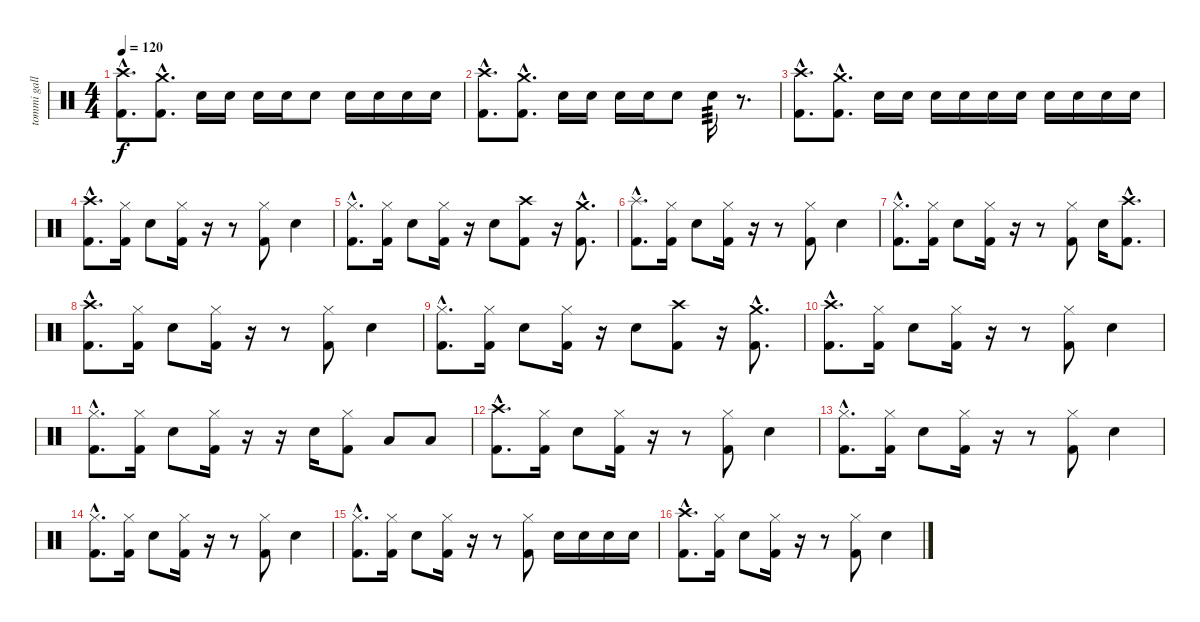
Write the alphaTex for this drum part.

\track ("tommi gallo" "tommi gall") {instrument percussion}
\staff {score}
\articulation defaults
\ts (4 4)
\tempo 120
\clef neutral
\ks c
("Crash high (hit)"{hac} "Kick (hit) 2"{hac}).8{d dy f} ("Crash medium (hit)"{hac} "Kick (hit) 2"{hac}).8{d} "Snare (hit) 2".16 "Snare (hit) 2".16 "Snare (hit) 2".16 "Snare (hit) 2".16 "Snare (hit) 2".8 "Snare (hit) 2".16 "Snare (hit) 2".16 "Snare (hit) 2".16 "Snare (hit) 2".16 |
("Crash high (hit)"{hac} "Kick (hit) 2"{hac}).8{d} ("Crash medium (hit)"{hac} "Kick (hit) 2"{hac}).8{d} "Snare (hit) 2".16 "Snare (hit) 2".16 "Snare (hit) 2".16 "Snare (hit) 2".16 "Snare (hit) 2".8 "Snare (hit) 2".16{tp 3} r.8{d} |
("Crash high (hit)"{hac} "Kick (hit) 2"{hac}).8{d} ("Crash medium (hit)"{hac} "Kick (hit) 2"{hac}).8{d} "Snare (hit) 2".16 "Snare (hit) 2".16 "Snare (hit) 2".16 "Snare (hit) 2".16 "Snare (hit) 2".16 "Snare (hit) 2".16 "Snare (hit) 2".16 "Snare (hit) 2".16 "Snare (hit) 2".16 "Snare (hit) 2".16 |
("Crash high (hit)"{hac} "Kick (hit) 2"{hac}).8{d} ("Hi-Hat (closed)" "Kick (hit) 2").16 "Snare (hit) 2".8 ("Hi-Hat (closed)" "Kick (hit) 2").16 r.16 r.8 ("Hi-Hat (closed)" "Kick (hit) 2").8 "Snare (hit) 2".4 |
("Hi-Hat (closed)"{hac} "Kick (hit) 2"{hac}).8{d} ("Hi-Hat (closed)" "Kick (hit) 2").16 "Snare (hit) 2".8 ("Hi-Hat (closed)" "Kick (hit) 2").16 r.16 "Snare (hit) 2".8 ("Crash high (hit)" "Kick (hit) 2").8 r.16 ("Crash medium (hit)"{hac} "Kick (hit) 2"{hac}).8{d} |
("Splash (hit)"{hac} "Kick (hit) 2"{hac}).8{d} ("Hi-Hat (closed)" "Kick (hit) 2").16 "Snare (hit) 2".8 ("Hi-Hat (closed)" "Kick (hit) 2").16 r.16 r.8 ("Hi-Hat (closed)" "Kick (hit) 2").8 "Snare (hit) 2".4 |
("Hi-Hat (closed)"{hac} "Kick (hit) 2"{hac}).8{d} ("Hi-Hat (closed)" "Kick (hit) 2").16 "Snare (hit) 2".8 ("Hi-Hat (closed)" "Kick (hit) 2").16 r.16 r.8 ("Hi-Hat (closed)" "Kick (hit) 2").8 "Snare (hit) 2".16 ("Crash high (hit)"{hac} "Kick (hit) 2"{hac}).8{d} |
("Crash high (hit)"{hac} "Kick (hit) 2"{hac}).8{d} ("Hi-Hat (closed)" "Kick (hit) 2").16 "Snare (hit) 2".8 ("Hi-Hat (closed)" "Kick (hit) 2").16 r.16 r.8 ("Hi-Hat (closed)" "Kick (hit) 2").8 "Snare (hit) 2".4 |
("Hi-Hat (closed)"{hac} "Kick (hit) 2"{hac}).8{d} ("Hi-Hat (closed)" "Kick (hit) 2").16 "Snare (hit) 2".8 ("Hi-Hat (closed)" "Kick (hit) 2").16 r.16 "Snare (hit) 2".8 ("Crash high (hit)" "Kick (hit) 2").8 r.16 ("Crash medium (hit)"{hac} "Kick (hit) 2"{hac}).8{d} |
("Crash high (hit)"{hac} "Kick (hit) 2"{hac}).8{d} ("Hi-Hat (closed)" "Kick (hit) 2").16 "Snare (hit) 2".8 ("Hi-Hat (closed)" "Kick (hit) 2").16 r.16 r.8 ("Hi-Hat (closed)" "Kick (hit) 2").8 "Snare (hit) 2".4 |
("Hi-Hat (closed)"{hac} "Kick (hit) 2"{hac}).8{d} ("Hi-Hat (closed)" "Kick (hit) 2").16 "Snare (hit) 2".8 ("Hi-Hat (closed)" "Kick (hit) 2").16 r.16 r.16 "Snare (hit) 2".16 ("Hi-Hat (closed)" "Kick (hit) 2").8 "Low Tom (hit)".8 "Low Tom (hit)".8 |
("Crash high (hit)"{hac} "Kick (hit) 2"{hac}).8{d} ("Hi-Hat (closed)" "Kick (hit) 2").16 "Snare (hit) 2".8 ("Hi-Hat (closed)" "Kick (hit) 2").16 r.16 r.8 ("Hi-Hat (closed)" "Kick (hit) 2").8 "Snare (hit) 2".4 |
("Hi-Hat (closed)"{hac} "Kick (hit) 2"{hac}).8{d} ("Hi-Hat (closed)" "Kick (hit) 2").16 "Snare (hit) 2".8 ("Hi-Hat (closed)" "Kick (hit) 2").16 r.16 r.8 ("Hi-Hat (closed)" "Kick (hit) 2").8 "Snare (hit) 2".4 |
("Hi-Hat (closed)"{hac} "Kick (hit) 2"{hac}).8{d} ("Hi-Hat (closed)" "Kick (hit) 2").16 "Snare (hit) 2".8 ("Hi-Hat (closed)" "Kick (hit) 2").16 r.16 r.8 ("Hi-Hat (closed)" "Kick (hit) 2").8 "Snare (hit) 2".4 |
("Hi-Hat (closed)"{hac} "Kick (hit) 2"{hac}).8{d} ("Hi-Hat (closed)" "Kick (hit) 2").16 "Snare (hit) 2".8 ("Hi-Hat (closed)" "Kick (hit) 2").16 r.16 r.8 ("Hi-Hat (closed)" "Kick (hit) 2").8 "Snare (hit) 2".16 "Snare (hit) 2".16 "Snare (hit) 2".16 "Snare (hit) 2".16 |
("Crash high (hit)"{hac} "Kick (hit) 2"{hac}).8{d} ("Hi-Hat (closed)" "Kick (hit) 2").16 "Snare (hit) 2".8 ("Hi-Hat (closed)" "Kick (hit) 2").16 r.16 r.8 ("Hi-Hat (closed)" "Kick (hit) 2").8 "Snare (hit) 2".4
